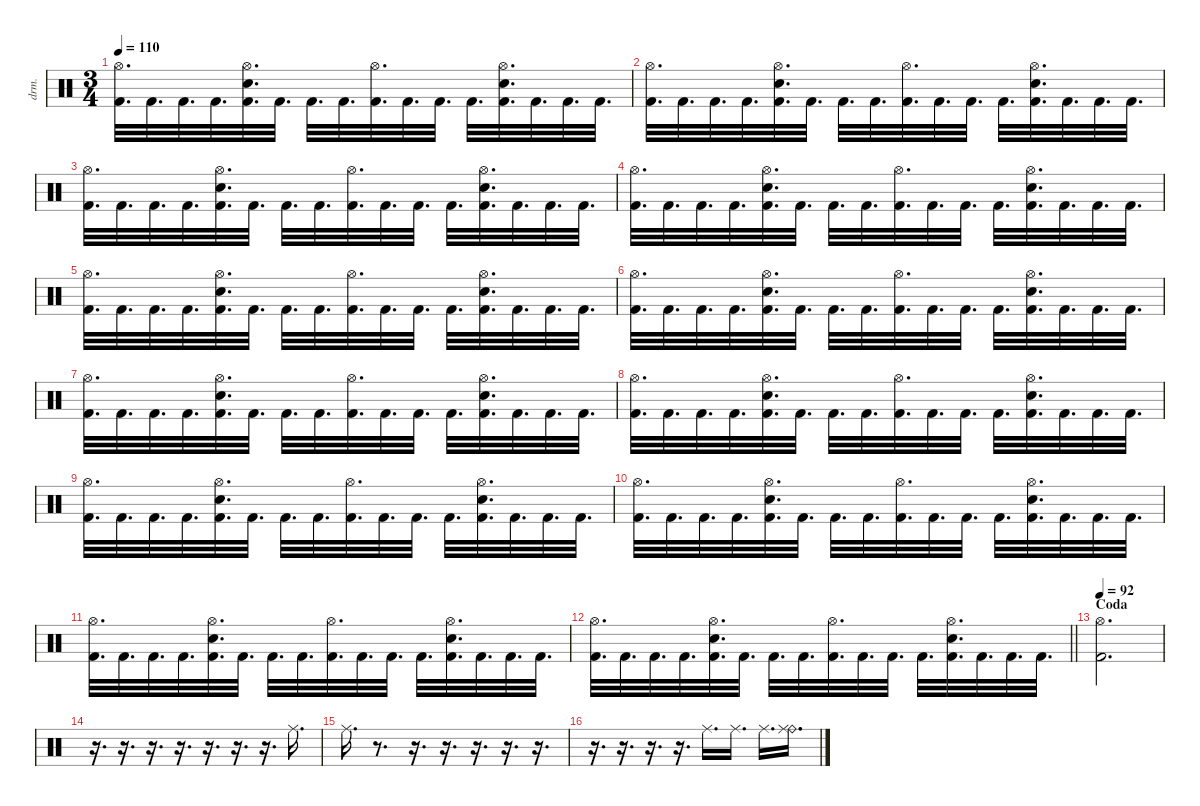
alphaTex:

\defaultSystemsLayout 4
\hideDynamics
\bracketExtendMode nobrackets
\otherSystemsTrackNameOrientation horizontal
\track ("Drums" "drm.") {instrument percussion}
\staff {score}
\articulation defaults
\ts (3 4)
\tempo 110
\clef neutral
\ks c
("Hi-Hat (open)" "Kick (hit) 2").32{d dy f} "Kick (hit) 2".32{d} "Kick (hit) 2".32{d} "Kick (hit) 2".32{d} ("Hi-Hat (open)" "Snare (hit) 2" "Kick (hit) 2").32{d} "Kick (hit) 2".32{d} "Kick (hit) 2".32{d} "Kick (hit) 2".32{d} ("Hi-Hat (open)" "Kick (hit) 2").32{d} "Kick (hit) 2".32{d} "Kick (hit) 2".32{d} "Kick (hit) 2".32{d} ("Hi-Hat (open)" "Snare (hit) 2" "Kick (hit) 2").32{d} "Kick (hit) 2".32{d} "Kick (hit) 2".32{d} "Kick (hit) 2".32{d} |
("Hi-Hat (open)" "Kick (hit) 2").32{d} "Kick (hit) 2".32{d} "Kick (hit) 2".32{d} "Kick (hit) 2".32{d} ("Hi-Hat (open)" "Snare (hit) 2" "Kick (hit) 2").32{d} "Kick (hit) 2".32{d} "Kick (hit) 2".32{d} "Kick (hit) 2".32{d} ("Hi-Hat (open)" "Kick (hit) 2").32{d} "Kick (hit) 2".32{d} "Kick (hit) 2".32{d} "Kick (hit) 2".32{d} ("Hi-Hat (open)" "Snare (hit) 2" "Kick (hit) 2").32{d} "Kick (hit) 2".32{d} "Kick (hit) 2".32{d} "Kick (hit) 2".32{d} |
("Hi-Hat (open)" "Kick (hit) 2").32{d} "Kick (hit) 2".32{d} "Kick (hit) 2".32{d} "Kick (hit) 2".32{d} ("Hi-Hat (open)" "Snare (hit) 2" "Kick (hit) 2").32{d} "Kick (hit) 2".32{d} "Kick (hit) 2".32{d} "Kick (hit) 2".32{d} ("Hi-Hat (open)" "Kick (hit) 2").32{d} "Kick (hit) 2".32{d} "Kick (hit) 2".32{d} "Kick (hit) 2".32{d} ("Hi-Hat (open)" "Snare (hit) 2" "Kick (hit) 2").32{d} "Kick (hit) 2".32{d} "Kick (hit) 2".32{d} "Kick (hit) 2".32{d} |
("Hi-Hat (open)" "Kick (hit) 2").32{d} "Kick (hit) 2".32{d} "Kick (hit) 2".32{d} "Kick (hit) 2".32{d} ("Hi-Hat (open)" "Snare (hit) 2" "Kick (hit) 2").32{d} "Kick (hit) 2".32{d} "Kick (hit) 2".32{d} "Kick (hit) 2".32{d} ("Hi-Hat (open)" "Kick (hit) 2").32{d} "Kick (hit) 2".32{d} "Kick (hit) 2".32{d} "Kick (hit) 2".32{d} ("Hi-Hat (open)" "Snare (hit) 2" "Kick (hit) 2").32{d} "Kick (hit) 2".32{d} "Kick (hit) 2".32{d} "Kick (hit) 2".32{d} |
("Hi-Hat (open)" "Kick (hit) 2").32{d} "Kick (hit) 2".32{d} "Kick (hit) 2".32{d} "Kick (hit) 2".32{d} ("Hi-Hat (open)" "Snare (hit) 2" "Kick (hit) 2").32{d} "Kick (hit) 2".32{d} "Kick (hit) 2".32{d} "Kick (hit) 2".32{d} ("Hi-Hat (open)" "Kick (hit) 2").32{d} "Kick (hit) 2".32{d} "Kick (hit) 2".32{d} "Kick (hit) 2".32{d} ("Hi-Hat (open)" "Snare (hit) 2" "Kick (hit) 2").32{d} "Kick (hit) 2".32{d} "Kick (hit) 2".32{d} "Kick (hit) 2".32{d} |
("Hi-Hat (open)" "Kick (hit) 2").32{d} "Kick (hit) 2".32{d} "Kick (hit) 2".32{d} "Kick (hit) 2".32{d} ("Hi-Hat (open)" "Snare (hit) 2" "Kick (hit) 2").32{d} "Kick (hit) 2".32{d} "Kick (hit) 2".32{d} "Kick (hit) 2".32{d} ("Hi-Hat (open)" "Kick (hit) 2").32{d} "Kick (hit) 2".32{d} "Kick (hit) 2".32{d} "Kick (hit) 2".32{d} ("Hi-Hat (open)" "Snare (hit) 2" "Kick (hit) 2").32{d} "Kick (hit) 2".32{d} "Kick (hit) 2".32{d} "Kick (hit) 2".32{d} |
("Hi-Hat (open)" "Kick (hit) 2").32{d} "Kick (hit) 2".32{d} "Kick (hit) 2".32{d} "Kick (hit) 2".32{d} ("Hi-Hat (open)" "Snare (hit) 2" "Kick (hit) 2").32{d} "Kick (hit) 2".32{d} "Kick (hit) 2".32{d} "Kick (hit) 2".32{d} ("Hi-Hat (open)" "Kick (hit) 2").32{d} "Kick (hit) 2".32{d} "Kick (hit) 2".32{d} "Kick (hit) 2".32{d} ("Hi-Hat (open)" "Snare (hit) 2" "Kick (hit) 2").32{d} "Kick (hit) 2".32{d} "Kick (hit) 2".32{d} "Kick (hit) 2".32{d} |
("Hi-Hat (open)" "Kick (hit) 2").32{d} "Kick (hit) 2".32{d} "Kick (hit) 2".32{d} "Kick (hit) 2".32{d} ("Hi-Hat (open)" "Snare (hit) 2" "Kick (hit) 2").32{d} "Kick (hit) 2".32{d} "Kick (hit) 2".32{d} "Kick (hit) 2".32{d} ("Hi-Hat (open)" "Kick (hit) 2").32{d} "Kick (hit) 2".32{d} "Kick (hit) 2".32{d} "Kick (hit) 2".32{d} ("Hi-Hat (open)" "Snare (hit) 2" "Kick (hit) 2").32{d} "Kick (hit) 2".32{d} "Kick (hit) 2".32{d} "Kick (hit) 2".32{d} |
("Hi-Hat (open)" "Kick (hit) 2").32{d} "Kick (hit) 2".32{d} "Kick (hit) 2".32{d} "Kick (hit) 2".32{d} ("Hi-Hat (open)" "Snare (hit) 2" "Kick (hit) 2").32{d} "Kick (hit) 2".32{d} "Kick (hit) 2".32{d} "Kick (hit) 2".32{d} ("Hi-Hat (open)" "Kick (hit) 2").32{d} "Kick (hit) 2".32{d} "Kick (hit) 2".32{d} "Kick (hit) 2".32{d} ("Hi-Hat (open)" "Snare (hit) 2" "Kick (hit) 2").32{d} "Kick (hit) 2".32{d} "Kick (hit) 2".32{d} "Kick (hit) 2".32{d} |
("Hi-Hat (open)" "Kick (hit) 2").32{d} "Kick (hit) 2".32{d} "Kick (hit) 2".32{d} "Kick (hit) 2".32{d} ("Hi-Hat (open)" "Snare (hit) 2" "Kick (hit) 2").32{d} "Kick (hit) 2".32{d} "Kick (hit) 2".32{d} "Kick (hit) 2".32{d} ("Hi-Hat (open)" "Kick (hit) 2").32{d} "Kick (hit) 2".32{d} "Kick (hit) 2".32{d} "Kick (hit) 2".32{d} ("Hi-Hat (open)" "Snare (hit) 2" "Kick (hit) 2").32{d} "Kick (hit) 2".32{d} "Kick (hit) 2".32{d} "Kick (hit) 2".32{d} |
("Hi-Hat (open)" "Kick (hit) 2").32{d} "Kick (hit) 2".32{d} "Kick (hit) 2".32{d} "Kick (hit) 2".32{d} ("Hi-Hat (open)" "Snare (hit) 2" "Kick (hit) 2").32{d} "Kick (hit) 2".32{d} "Kick (hit) 2".32{d} "Kick (hit) 2".32{d} ("Hi-Hat (open)" "Kick (hit) 2").32{d} "Kick (hit) 2".32{d} "Kick (hit) 2".32{d} "Kick (hit) 2".32{d} ("Hi-Hat (open)" "Snare (hit) 2" "Kick (hit) 2").32{d} "Kick (hit) 2".32{d} "Kick (hit) 2".32{d} "Kick (hit) 2".32{d} |
\barLineRight lightlight
("Hi-Hat (open)" "Kick (hit) 2").32{d} "Kick (hit) 2".32{d} "Kick (hit) 2".32{d} "Kick (hit) 2".32{d} ("Hi-Hat (open)" "Snare (hit) 2" "Kick (hit) 2").32{d} "Kick (hit) 2".32{d} "Kick (hit) 2".32{d} "Kick (hit) 2".32{d} ("Hi-Hat (open)" "Kick (hit) 2").32{d} "Kick (hit) 2".32{d} "Kick (hit) 2".32{d} "Kick (hit) 2".32{d} ("Hi-Hat (open)" "Snare (hit) 2" "Kick (hit) 2").32{d} "Kick (hit) 2".32{d} "Kick (hit) 2".32{d} "Kick (hit) 2".32{d} |
\section ("" "Coda")
\tempo 92
("Hi-Hat (open)" "Kick (hit) 2").2{d} |
r.16{d} r.16{d} r.16{d} r.16{d} r.16{d} r.16{d} r.16{d} "Ride (middle)".16{d} |
"Ride (middle)".16{d} r.8{d} r.16{d} r.16{d} r.16{d} r.16{d} r.16{d} |
r.16{d} r.16{d} r.16{d} r.16{d} "Ride (middle)".16{d} "Ride (middle)".16{d} "Ride (middle)".16{d} ("Ride (bell)" "Ride (middle)").16{d}
